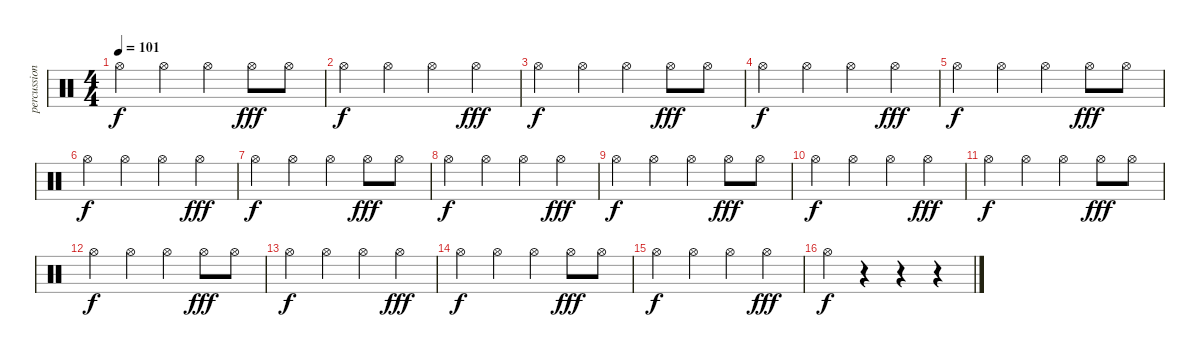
\track ("percussion" "percussion") {instrument percussion}
\staff {score}
\articulation defaults
\ts (4 4)
\tempo 101
\clef neutral
\ks c "Hi-Hat (open)".4{dy f} "Hi-Hat (open)".4 "Hi-Hat (open)".4 "Hi-Hat (open)".8{dy fff} "Hi-Hat (open)".8
|
"Hi-Hat (open)".4{dy f} "Hi-Hat (open)".4 "Hi-Hat (open)".4 "Hi-Hat (open)".4{dy fff} |
"Hi-Hat (open)".4{dy f} "Hi-Hat (open)".4 "Hi-Hat (open)".4 "Hi-Hat (open)".8{dy fff} "Hi-Hat (open)".8 |
"Hi-Hat (open)".4{dy f} "Hi-Hat (open)".4 "Hi-Hat (open)".4 "Hi-Hat (open)".4{dy fff} |
"Hi-Hat (open)".4{dy f} "Hi-Hat (open)".4 "Hi-Hat (open)".4 "Hi-Hat (open)".8{dy fff} "Hi-Hat (open)".8 |
"Hi-Hat (open)".4{dy f} "Hi-Hat (open)".4 "Hi-Hat (open)".4 "Hi-Hat (open)".4{dy fff} |
"Hi-Hat (open)".4{dy f} "Hi-Hat (open)".4 "Hi-Hat (open)".4 "Hi-Hat (open)".8{dy fff} "Hi-Hat (open)".8 |
"Hi-Hat (open)".4{dy f} "Hi-Hat (open)".4 "Hi-Hat (open)".4 "Hi-Hat (open)".4{dy fff} |
"Hi-Hat (open)".4{dy f} "Hi-Hat (open)".4 "Hi-Hat (open)".4 "Hi-Hat (open)".8{dy fff} "Hi-Hat (open)".8 |
"Hi-Hat (open)".4{dy f} "Hi-Hat (open)".4 "Hi-Hat (open)".4 "Hi-Hat (open)".4{dy fff} |
"Hi-Hat (open)".4{dy f} "Hi-Hat (open)".4 "Hi-Hat (open)".4 "Hi-Hat (open)".8{dy fff} "Hi-Hat (open)".8 |
"Hi-Hat (open)".4{dy f} "Hi-Hat (open)".4 "Hi-Hat (open)".4 "Hi-Hat (open)".8{dy fff} "Hi-Hat (open)".8 |
"Hi-Hat (open)".4{dy f} "Hi-Hat (open)".4 "Hi-Hat (open)".4 "Hi-Hat (open)".4{dy fff} |
"Hi-Hat (open)".4{dy f} "Hi-Hat (open)".4 "Hi-Hat (open)".4 "Hi-Hat (open)".8{dy fff} "Hi-Hat (open)".8 |
"Hi-Hat (open)".4{dy f} "Hi-Hat (open)".4 "Hi-Hat (open)".4 "Hi-Hat (open)".4{dy fff} |
"Hi-Hat (open)".4{dy f} r.4 r.4 r.4
